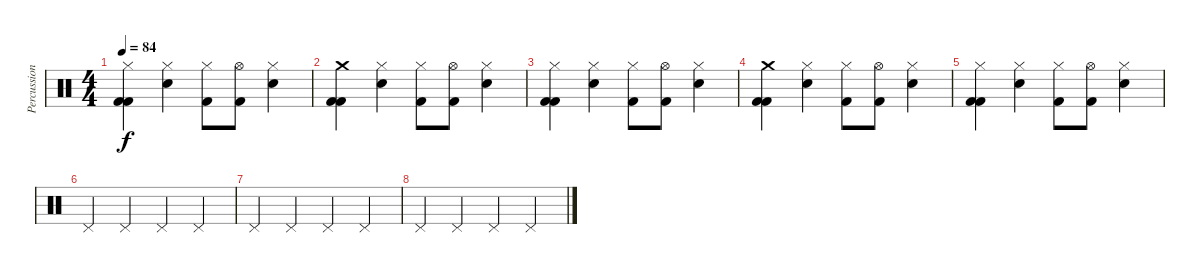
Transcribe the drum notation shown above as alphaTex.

\track ("Percussion" "Percussion") {instrument percussion}
\staff {score}
\articulation defaults
\ts (4 4)
\tempo 84
\clef neutral
\ks c
("Kick (hit) 2" "Kick (hit) 2" "Hi-Hat (closed)").4{dy f} ("Hi-Hat (closed)" "Electric Snare (hit)").4 ("Hi-Hat (closed)" "Kick (hit) 2").8 ("Hi-Hat (open)" "Kick (hit) 2").8 ("Hi-Hat (closed)" "Electric Snare (hit)").4 |
("Crash medium (hit)" "Kick (hit) 2" "Kick (hit) 2").4 ("Electric Snare (hit)" "Hi-Hat (closed)").4 ("Hi-Hat (closed)" "Kick (hit) 2").8 ("Hi-Hat (open)" "Kick (hit) 2").8 ("Hi-Hat (closed)" "Electric Snare (hit)").4 |
("Kick (hit) 2" "Kick (hit) 2" "Hi-Hat (closed)").4 ("Hi-Hat (closed)" "Electric Snare (hit)").4 ("Hi-Hat (closed)" "Kick (hit) 2").8 ("Hi-Hat (open)" "Kick (hit) 2").8 ("Electric Snare (hit)" "Hi-Hat (closed)").4 |
("Kick (hit) 2" "Crash medium (hit)" "Kick (hit) 2").4 ("Hi-Hat (closed)" "Electric Snare (hit)").4 ("Kick (hit) 2" "Hi-Hat (closed)").8 ("Hi-Hat (open)" "Kick (hit) 2").8 ("Hi-Hat (closed)" "Electric Snare (hit)").4 |
("Kick (hit) 2" "Kick (hit) 2" "Hi-Hat (closed)").4 ("Electric Snare (hit)" "Hi-Hat (closed)").4 ("Hi-Hat (closed)" "Kick (hit) 2").8 ("Hi-Hat (open)" "Kick (hit) 2").8 ("Hi-Hat (closed)" "Electric Snare (hit)").4 |
"Pedal Hi-Hat (hit)".4 "Pedal Hi-Hat (hit)".4 "Pedal Hi-Hat (hit)".4 "Pedal Hi-Hat (hit)".4 |
"Pedal Hi-Hat (hit)".4 "Pedal Hi-Hat (hit)".4 "Pedal Hi-Hat (hit)".4 "Pedal Hi-Hat (hit)".4 |
"Pedal Hi-Hat (hit)".4 "Pedal Hi-Hat (hit)".4 "Pedal Hi-Hat (hit)".4 "Pedal Hi-Hat (hit)".4
